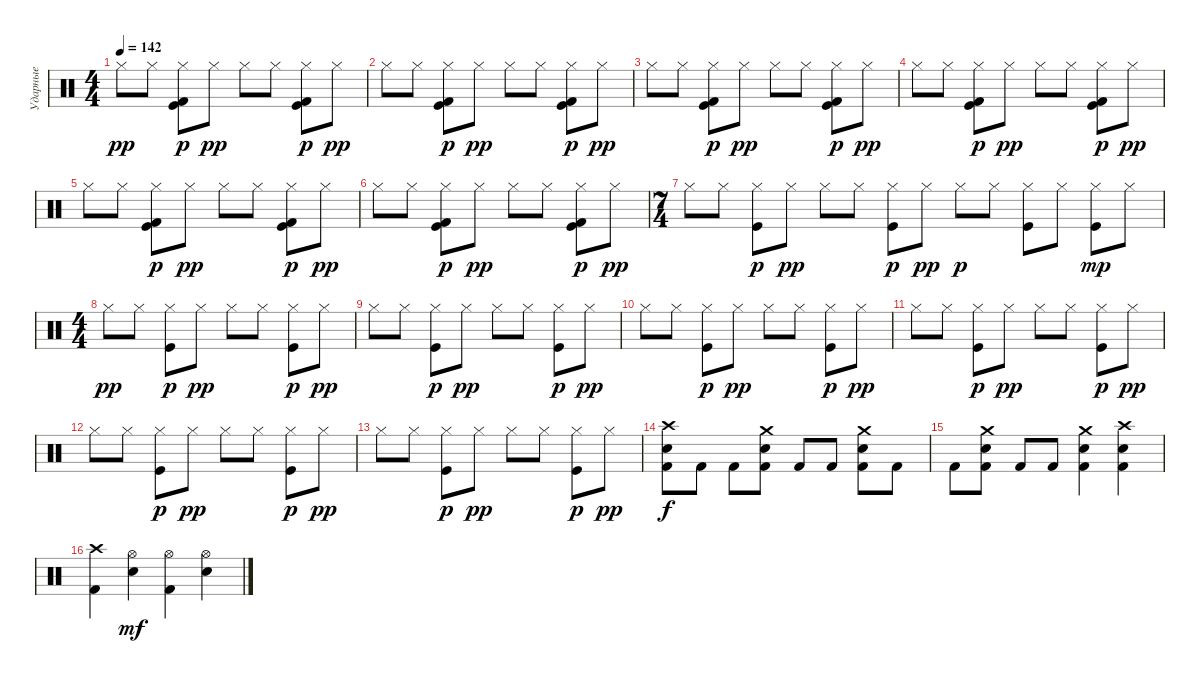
\track ("Ударные" "Ударные") {instrument percussion}
\staff {score}
\articulation defaults
\ts (4 4)
\tempo 142
\clef neutral
\ks c "Hi-Hat (closed)".8{dy pp} "Hi-Hat (closed)".8
("Kick (hit)" "Hi-Hat (closed)" "Kick (hit) 2").8{dy p} "Hi-Hat (closed)".8{dy pp} "Hi-Hat (closed)".8 "Hi-Hat (closed)".8 ("Kick (hit)" "Hi-Hat (closed)" "Kick (hit) 2").8{dy p} "Hi-Hat (closed)".8{dy pp} |
"Hi-Hat (closed)".8 "Hi-Hat (closed)".8 ("Kick (hit)" "Hi-Hat (closed)" "Kick (hit) 2").8{dy p} "Hi-Hat (closed)".8{dy pp} "Hi-Hat (closed)".8 "Hi-Hat (closed)".8 ("Kick (hit)" "Hi-Hat (closed)" "Kick (hit) 2").8{dy p} "Hi-Hat (closed)".8{dy pp} |
"Hi-Hat (closed)".8 "Hi-Hat (closed)".8 ("Kick (hit)" "Hi-Hat (closed)" "Kick (hit) 2").8{dy p} "Hi-Hat (closed)".8{dy pp} "Hi-Hat (closed)".8 "Hi-Hat (closed)".8 ("Kick (hit)" "Hi-Hat (closed)" "Kick (hit) 2").8{dy p} "Hi-Hat (closed)".8{dy pp} |
"Hi-Hat (closed)".8 "Hi-Hat (closed)".8 ("Kick (hit)" "Hi-Hat (closed)" "Kick (hit) 2").8{dy p} "Hi-Hat (closed)".8{dy pp} "Hi-Hat (closed)".8 "Hi-Hat (closed)".8 ("Kick (hit)" "Hi-Hat (closed)" "Kick (hit) 2").8{dy p} "Hi-Hat (closed)".8{dy pp} |
"Hi-Hat (closed)".8 "Hi-Hat (closed)".8 ("Kick (hit)" "Hi-Hat (closed)" "Kick (hit) 2").8{dy p} "Hi-Hat (closed)".8{dy pp} "Hi-Hat (closed)".8 "Hi-Hat (closed)".8 ("Kick (hit)" "Hi-Hat (closed)" "Kick (hit) 2").8{dy p} "Hi-Hat (closed)".8{dy pp} |
"Hi-Hat (closed)".8 "Hi-Hat (closed)".8 ("Kick (hit)" "Hi-Hat (closed)" "Kick (hit) 2").8{dy p} "Hi-Hat (closed)".8{dy pp} "Hi-Hat (closed)".8 "Hi-Hat (closed)".8 ("Kick (hit)" "Hi-Hat (closed)" "Kick (hit) 2").8{dy p} "Hi-Hat (closed)".8{dy pp} |
\ts (7 4)
"Hi-Hat (closed)".8 "Hi-Hat (closed)".8 ("Kick (hit)" "Hi-Hat (closed)").8{dy p} "Hi-Hat (closed)".8{dy pp} "Hi-Hat (closed)".8 "Hi-Hat (closed)".8 ("Kick (hit)" "Hi-Hat (closed)").8{dy p} "Hi-Hat (closed)".8{dy pp} "Hi-Hat (closed)".8{dy p} "Hi-Hat (closed)".8 ("Kick (hit)" "Hi-Hat (closed)").8 "Hi-Hat (closed)".8 ("Kick (hit)" "Hi-Hat (closed)").8{dy mp} "Hi-Hat (closed)".8 |
\ts (4 4)
"Hi-Hat (closed)".8{dy pp} "Hi-Hat (closed)".8 ("Kick (hit)" "Hi-Hat (closed)").8{dy p} "Hi-Hat (closed)".8{dy pp} "Hi-Hat (closed)".8 "Hi-Hat (closed)".8 ("Kick (hit)" "Hi-Hat (closed)").8{dy p} "Hi-Hat (closed)".8{dy pp} |
"Hi-Hat (closed)".8 "Hi-Hat (closed)".8 ("Kick (hit)" "Hi-Hat (closed)").8{dy p} "Hi-Hat (closed)".8{dy pp} "Hi-Hat (closed)".8 "Hi-Hat (closed)".8 ("Kick (hit)" "Hi-Hat (closed)").8{dy p} "Hi-Hat (closed)".8{dy pp} |
"Hi-Hat (closed)".8 "Hi-Hat (closed)".8 ("Kick (hit)" "Hi-Hat (closed)").8{dy p} "Hi-Hat (closed)".8{dy pp} "Hi-Hat (closed)".8 "Hi-Hat (closed)".8 ("Kick (hit)" "Hi-Hat (closed)").8{dy p} "Hi-Hat (closed)".8{dy pp} |
"Hi-Hat (closed)".8 "Hi-Hat (closed)".8 ("Kick (hit)" "Hi-Hat (closed)").8{dy p} "Hi-Hat (closed)".8{dy pp} "Hi-Hat (closed)".8 "Hi-Hat (closed)".8 ("Kick (hit)" "Hi-Hat (closed)").8{dy p} "Hi-Hat (closed)".8{dy pp} |
"Hi-Hat (closed)".8 "Hi-Hat (closed)".8 ("Kick (hit)" "Hi-Hat (closed)").8{dy p} "Hi-Hat (closed)".8{dy pp} "Hi-Hat (closed)".8 "Hi-Hat (closed)".8 ("Kick (hit)" "Hi-Hat (closed)").8{dy p} "Hi-Hat (closed)".8{dy pp} |
"Hi-Hat (closed)".8 "Hi-Hat (closed)".8 ("Kick (hit)" "Hi-Hat (closed)").8{dy p} "Hi-Hat (closed)".8{dy pp} "Hi-Hat (closed)".8 "Hi-Hat (closed)".8 ("Kick (hit)" "Hi-Hat (closed)").8{dy p} "Hi-Hat (closed)".8{dy pp} |
("Kick (hit) 2" "Electric Snare (hit)" "Crash high (hit)").8{dy f} "Kick (hit) 2".8 "Kick (hit) 2".8 ("Kick (hit) 2" "Electric Snare (hit)" "Crash medium (hit)").8 "Kick (hit) 2".8 "Kick (hit) 2".8 ("Kick (hit) 2" "Electric Snare (hit)" "Crash medium (hit)").8 "Kick (hit) 2".8 |
"Kick (hit) 2".8 ("Kick (hit) 2" "Electric Snare (hit)" "Crash medium (hit)").8 "Kick (hit) 2".8 "Kick (hit) 2".8 ("Kick (hit) 2" "Electric Snare (hit)" "Crash medium (hit)").4 ("Kick (hit) 2" "Electric Snare (hit)" "Crash high (hit)").4 |
("Kick (hit) 2" "Crash high (hit)").4 ("Electric Snare (hit)" "Hi-Hat (open)").4{dy mf} ("Kick (hit) 2" "Hi-Hat (open)").4 ("Electric Snare (hit)" "Hi-Hat (open)").4
